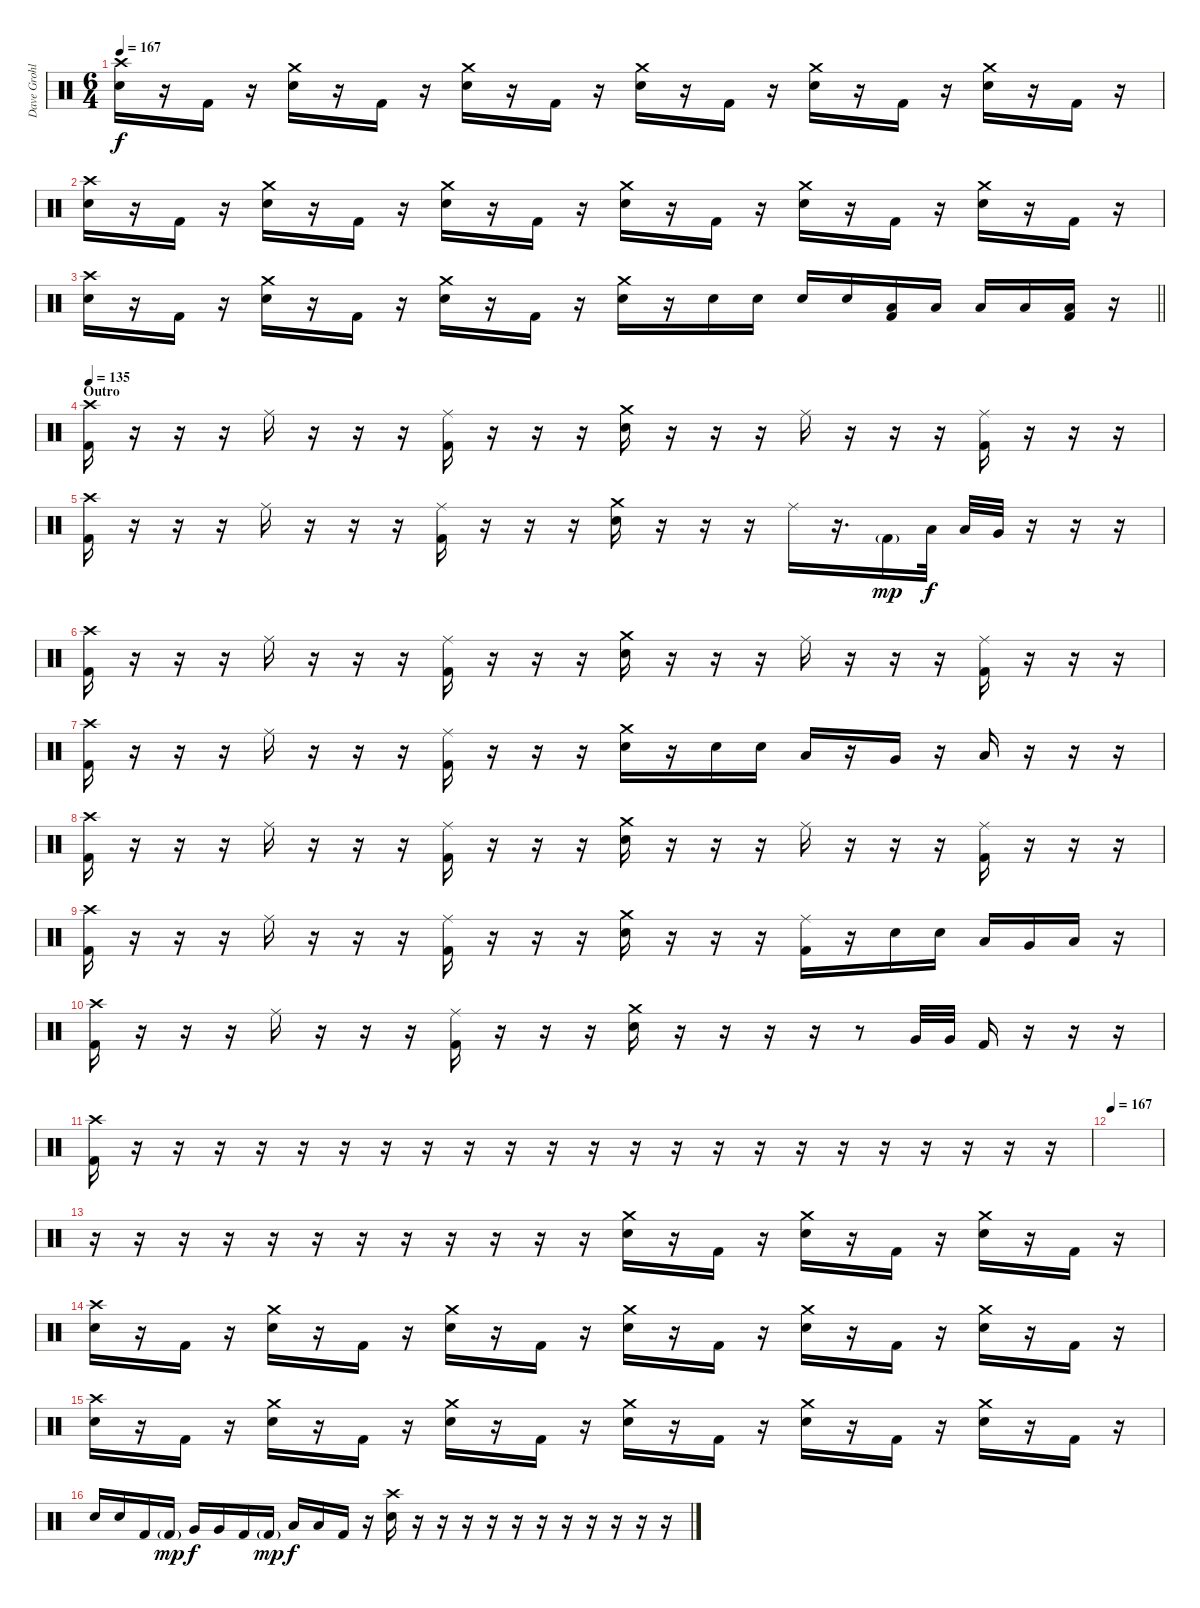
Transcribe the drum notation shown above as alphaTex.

\track ("Dave Grohl" "Dave Grohl") {instrument percussion}
\staff {score}
\articulation defaults
\ts (6 4)
\tempo 167
\clef neutral
\ks c
("Crash high (hit)" "Electric Snare (hit)").16{dy f} r.16 "Kick (hit) 2".16 r.16 ("Crash medium (hit)" "Electric Snare (hit)").16 r.16 "Kick (hit) 2".16 r.16 ("Crash medium (hit)" "Electric Snare (hit)").16 r.16 "Kick (hit) 2".16 r.16 ("Crash medium (hit)" "Electric Snare (hit)").16 r.16 "Kick (hit) 2".16 r.16 ("Crash medium (hit)" "Electric Snare (hit)").16 r.16 "Kick (hit) 2".16 r.16 ("Crash medium (hit)" "Electric Snare (hit)").16 r.16 "Kick (hit) 2".16 r.16 |
("Crash high (hit)" "Electric Snare (hit)").16 r.16 "Kick (hit) 2".16 r.16 ("Crash medium (hit)" "Electric Snare (hit)").16 r.16 "Kick (hit) 2".16 r.16 ("Crash medium (hit)" "Electric Snare (hit)").16 r.16 "Kick (hit) 2".16 r.16 ("Crash medium (hit)" "Electric Snare (hit)").16 r.16 "Kick (hit) 2".16 r.16 ("Crash medium (hit)" "Electric Snare (hit)").16 r.16 "Kick (hit) 2".16 r.16 ("Crash medium (hit)" "Electric Snare (hit)").16 r.16 "Kick (hit) 2".16 r.16 |
\barLineRight lightlight
("Crash high (hit)" "Electric Snare (hit)").16 r.16 "Kick (hit) 2".16 r.16 ("Crash medium (hit)" "Electric Snare (hit)").16 r.16 "Kick (hit) 2".16 r.16 ("Crash medium (hit)" "Electric Snare (hit)").16 r.16 "Kick (hit) 2".16 r.16 ("Crash medium (hit)" "Electric Snare (hit)").16 r.16 "Electric Snare (hit)".16 "Electric Snare (hit)".16 "Electric Snare (hit)".16 "Electric Snare (hit)".16 ("Low Tom (hit)" "Kick (hit) 2").16 "Low Tom (hit)".16 "Low Tom (hit)".16 "Low Floor Tom (hit)".16 ("Low Floor Tom (hit)" "Kick (hit) 2").16 r.16 |
\section ("" "Outro")
\tempo 135
("Crash high (hit)" "Kick (hit) 2").16 r.16 r.16 r.16 "Ride (middle)".16 r.16 r.16 r.16 ("Ride (middle)" "Kick (hit) 2").16 r.16 r.16 r.16 ("Crash medium (hit)" "Electric Snare (hit)").16 r.16 r.16 r.16 "Ride (middle)".16 r.16 r.16 r.16 ("Ride (middle)" "Kick (hit) 2").16 r.16 r.16 r.16 |
("Crash high (hit)" "Kick (hit) 2").16 r.16 r.16 r.16 "Ride (middle)".16 r.16 r.16 r.16 ("Ride (middle)" "Kick (hit) 2").16 r.16 r.16 r.16 ("Crash medium (hit)" "Electric Snare (hit)").16 r.16 r.16 r.16 "Ride (middle)".16 r.16{d} "Kick (hit) 2"{g}.16{dy mp} "Low Tom (hit)".32{dy f} "Low Tom (hit)".32 "Very Low Tom (hit)".32 r.16 r.16 r.16 |
("Crash high (hit)" "Kick (hit) 2").16 r.16 r.16 r.16 "Ride (middle)".16 r.16 r.16 r.16 ("Ride (middle)" "Kick (hit) 2").16 r.16 r.16 r.16 ("Crash medium (hit)" "Electric Snare (hit)").16 r.16 r.16 r.16 "Ride (middle)".16 r.16 r.16 r.16 ("Ride (middle)" "Kick (hit) 2").16 r.16 r.16 r.16 |
("Crash high (hit)" "Kick (hit) 2").16 r.16 r.16 r.16 "Ride (middle)".16 r.16 r.16 r.16 ("Ride (middle)" "Kick (hit) 2").16 r.16 r.16 r.16 ("Crash medium (hit)" "Electric Snare (hit)").16 r.16 "Electric Snare (hit)".16 "Electric Snare (hit)".16 "Low Tom (hit)".16 r.16 "Very Low Tom (hit)".16 r.16 "Low Floor Tom (hit)".16 r.16 r.16 r.16 |
("Crash high (hit)" "Kick (hit) 2").16 r.16 r.16 r.16 "Ride (middle)".16 r.16 r.16 r.16 ("Ride (middle)" "Kick (hit) 2").16 r.16 r.16 r.16 ("Crash medium (hit)" "Electric Snare (hit)").16 r.16 r.16 r.16 "Ride (middle)".16 r.16 r.16 r.16 ("Ride (middle)" "Kick (hit) 2").16 r.16 r.16 r.16 |
("Crash high (hit)" "Kick (hit) 2").16 r.16 r.16 r.16 "Ride (middle)".16 r.16 r.16 r.16 ("Ride (middle)" "Kick (hit) 2").16 r.16 r.16 r.16 ("Crash medium (hit)" "Electric Snare (hit)").16 r.16 r.16 r.16 ("Ride (middle)" "Kick (hit) 2").16 r.16 "Electric Snare (hit)".16 "Electric Snare (hit)".16 "Low Tom (hit)".16 "Very Low Tom (hit)".16 "Low Floor Tom (hit)".16 r.16 |
("Crash high (hit)" "Kick (hit) 2").16 r.16 r.16 r.16 "Ride (middle)".16 r.16 r.16 r.16 ("Ride (middle)" "Kick (hit) 2").16 r.16 r.16 r.16 ("Crash medium (hit)" "Electric Snare (hit)").16 r.16 r.16 r.16 r.16 r.8 "Very Low Tom (hit)".32 "Very Low Tom (hit)".32 "Kick (hit) 2".16 r.16 r.16 r.16 |
("Crash high (hit)" "Kick (hit) 2").16 r.16 r.16 r.16 r.16 r.16 r.16 r.16 r.16 r.16 r.16 r.16 r.16 r.16 r.16 r.16 r.16 r.16 r.16 r.16 r.16 r.16 r.16 r.16 |
\tempo 167
|
r.16 r.16 r.16 r.16 r.16 r.16 r.16 r.16 r.16 r.16 r.16 r.16 ("Crash medium (hit)" "Electric Snare (hit)").16 r.16 "Kick (hit) 2".16 r.16 ("Crash medium (hit)" "Electric Snare (hit)").16 r.16 "Kick (hit) 2".16 r.16 ("Crash medium (hit)" "Electric Snare (hit)").16 r.16 "Kick (hit) 2".16 r.16 |
("Crash high (hit)" "Electric Snare (hit)").16 r.16 "Kick (hit) 2".16 r.16 ("Crash medium (hit)" "Electric Snare (hit)").16 r.16 "Kick (hit) 2".16 r.16 ("Crash medium (hit)" "Electric Snare (hit)").16 r.16 "Kick (hit) 2".16 r.16 ("Crash medium (hit)" "Electric Snare (hit)").16 r.16 "Kick (hit) 2".16 r.16 ("Crash medium (hit)" "Electric Snare (hit)").16 r.16 "Kick (hit) 2".16 r.16 ("Crash medium (hit)" "Electric Snare (hit)").16 r.16 "Kick (hit) 2".16 r.16 |
("Crash high (hit)" "Electric Snare (hit)").16 r.16 "Kick (hit) 2".16 r.16 ("Crash medium (hit)" "Electric Snare (hit)").16 r.16 "Kick (hit) 2".16 r.16 ("Crash medium (hit)" "Electric Snare (hit)").16 r.16 "Kick (hit) 2".16 r.16 ("Crash medium (hit)" "Electric Snare (hit)").16 r.16 "Kick (hit) 2".16 r.16 ("Crash medium (hit)" "Electric Snare (hit)").16 r.16 "Kick (hit) 2".16 r.16 ("Crash medium (hit)" "Electric Snare (hit)").16 r.16 "Kick (hit) 2".16 r.16 |
"Electric Snare (hit)".16 "Electric Snare (hit)".16 "Kick (hit) 2".16 "Kick (hit) 2"{g}.16{dy mp} "Very Low Tom (hit)".16{dy f} "Very Low Tom (hit)".16 "Kick (hit) 2".16 "Kick (hit) 2"{g}.16{dy mp} "Low Floor Tom (hit)".16{dy f} "Low Floor Tom (hit)".16 "Kick (hit) 2".16 r.16 ("Crash high (hit)" "Electric Snare (hit)").16 r.16 r.16 r.16 r.16 r.16 r.16 r.16 r.16 r.16 r.16 r.16
